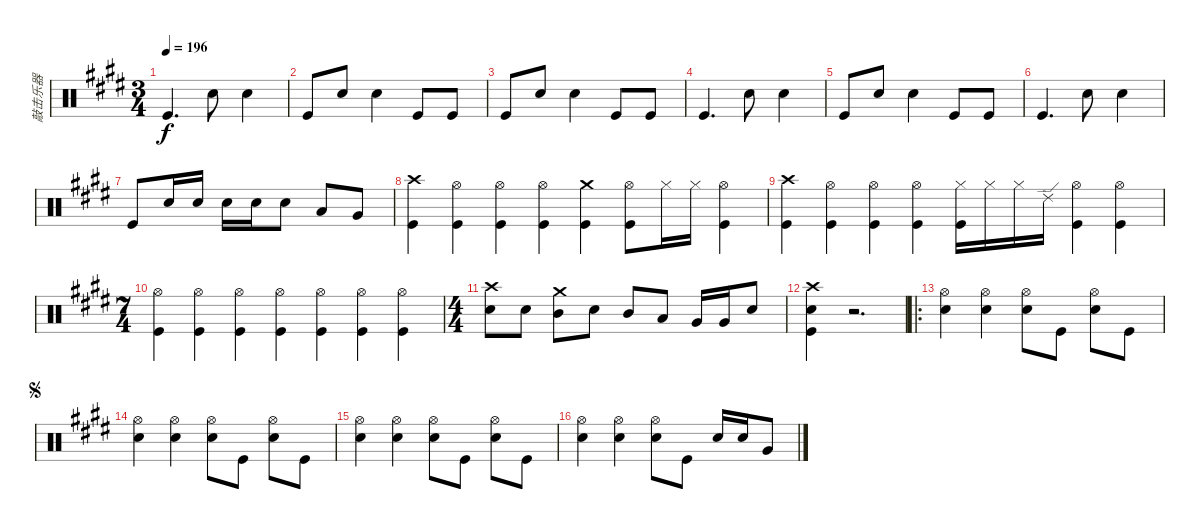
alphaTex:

\track ("敲击乐器" "敲击乐器") {instrument percussion}
\staff {score}
\articulation defaults
\ts (3 4)
\tempo 196
\clef neutral
\ks c#minor "Kick (hit)".4{d dy f} "Snare (hit) 2".8 "Snare (hit) 2".4
|
\ks e "Kick (hit)".8 "Snare (hit) 2".8 "Snare (hit) 2".4 "Kick (hit)".8 "Kick (hit)".8
|
\ks c#minor "Kick (hit)".8 "Snare (hit) 2".8 "Snare (hit) 2".4 "Kick (hit)".8 "Kick (hit)".8
|
\ks e "Kick (hit)".4{d} "Snare (hit) 2".8 "Snare (hit) 2".4
|
\ks c#minor "Kick (hit)".8 "Snare (hit) 2".8 "Snare (hit) 2".4 "Kick (hit)".8 "Kick (hit)".8
|
\ks e "Kick (hit)".4{d} "Snare (hit) 2".8 "Snare (hit) 2".4
|
\ks c#minor "Kick (hit)".8 "Snare (hit) 2".16 "Snare (hit) 2".16 "Snare (hit) 2".16 "Snare (hit) 2".16 "Snare (hit) 2".8 "Low Tom (hit)".8 "Very Low Tom (hit)".8
|
\ks e
("Crash high (hit)" "Kick (hit)").4 ("Hi-Hat (open)" "Kick (hit)").4 ("Hi-Hat (open)" "Kick (hit)").4 ("Hi-Hat (open)" "Kick (hit)").4 ("Crash medium (hit)" "Kick (hit)").4 ("Hi-Hat (open)" "Kick (hit)").8 "Hi-Hat (closed)".16 "Hi-Hat (closed)".16 ("Hi-Hat (open)" "Kick (hit)").4 |
\ks c#minor
("Crash high (hit)" "Kick (hit)").4 ("Hi-Hat (open)" "Kick (hit)").4 ("Hi-Hat (open)" "Kick (hit)").4 ("Hi-Hat (open)" "Kick (hit)").4 ("Hi-Hat (closed)" "Kick (hit)").16 "Hi-Hat (closed)".16 "Hi-Hat (closed)".16 "Ride (edge) 2".16 ("Hi-Hat (open)" "Kick (hit)").4 ("Hi-Hat (open)" "Kick (hit)").4 |
\ts (7 4)
("Hi-Hat (open)" "Kick (hit)").4 ("Hi-Hat (open)" "Kick (hit)").4 ("Hi-Hat (open)" "Kick (hit)").4 ("Hi-Hat (open)" "Kick (hit)").4 ("Hi-Hat (open)" "Kick (hit)").4 ("Hi-Hat (open)" "Kick (hit)").4 ("Hi-Hat (open)" "Kick (hit)").4 |
\ts (4 4)
\ks e
("Crash high (hit)" "Snare (hit) 2").8 "Snare (hit) 2".8 ("Crash medium (hit)" "Mid Tom (hit)").8 "Snare (hit) 2".8 "Mid Tom (hit)".8 "Low Tom (hit)".8 "Very Low Tom (hit)".16 "Very Low Tom (hit)".16 "Snare (hit) 2".8 |
\ks c#minor
("Crash high (hit)" "Snare (hit) 2" "Kick (hit)").4 r.2{d} |
\ro
\ks e
("Hi-Hat (open)" "Snare (hit) 2").4 ("Hi-Hat (open)" "Snare (hit) 2").4 ("Hi-Hat (open)" "Snare (hit) 2").8 "Kick (hit)".8 ("Hi-Hat (open)" "Snare (hit) 2").8 "Kick (hit)".8 |
\jump segno
\ks c#minor
("Hi-Hat (open)" "Snare (hit) 2").4 ("Hi-Hat (open)" "Snare (hit) 2").4 ("Hi-Hat (open)" "Snare (hit) 2").8 "Kick (hit)".8 ("Hi-Hat (open)" "Snare (hit) 2").8 "Kick (hit)".8 |
("Hi-Hat (open)" "Snare (hit) 2").4 ("Hi-Hat (open)" "Snare (hit) 2").4 ("Hi-Hat (open)" "Snare (hit) 2").8 "Kick (hit)".8 ("Hi-Hat (open)" "Snare (hit) 2").8 "Kick (hit)".8 |
("Hi-Hat (open)" "Snare (hit) 2").4 ("Hi-Hat (open)" "Snare (hit) 2").4 ("Hi-Hat (open)" "Snare (hit) 2").8 "Kick (hit)".8 "Snare (hit) 2".16 "Snare (hit) 2".16 "Very Low Tom (hit)".8
